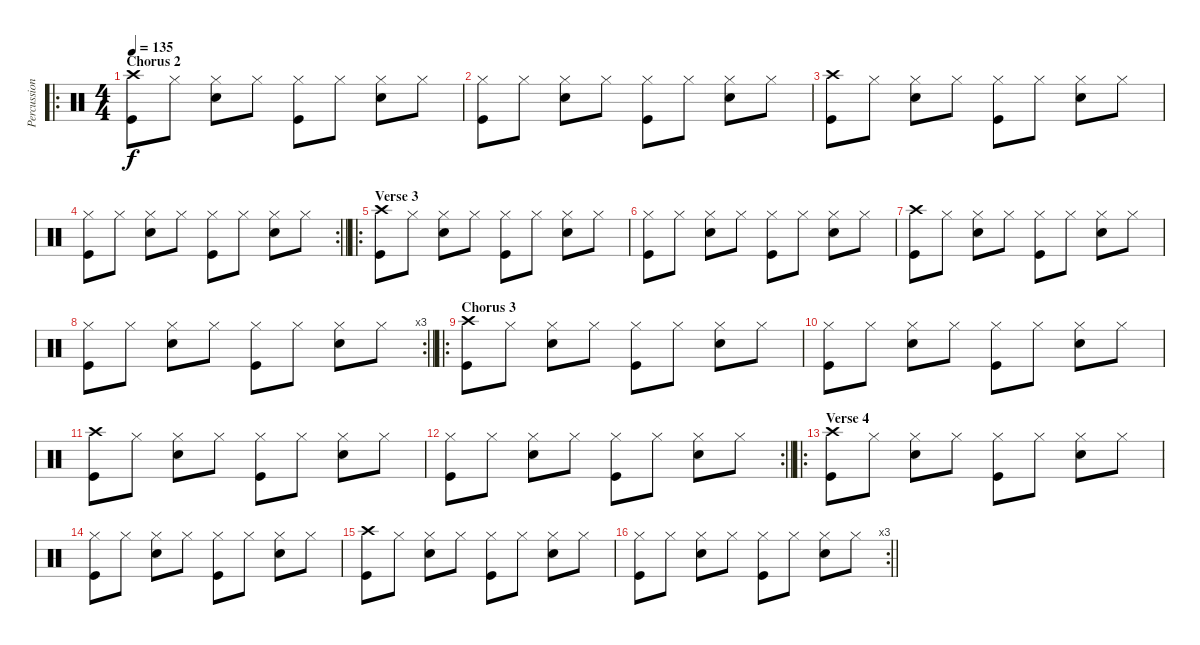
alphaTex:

\track ("Percussion" "Percussion") {instrument percussion}
\staff {score}
\articulation defaults
\ro
\ts (4 4)
\section ("" "Chorus 2")
\tempo 135
\clef neutral
\ks c
("Crash high (hit)" "Kick (hit)").8{dy f} "Hi-Hat (closed)".8 ("Hi-Hat (closed)" "Electric Snare (hit)").8 "Hi-Hat (closed)".8 ("Hi-Hat (closed)" "Kick (hit)").8 "Hi-Hat (closed)".8 ("Hi-Hat (closed)" "Electric Snare (hit)").8 "Hi-Hat (closed)".8 |
("Hi-Hat (closed)" "Kick (hit)").8 "Hi-Hat (closed)".8 ("Hi-Hat (closed)" "Electric Snare (hit)").8 "Hi-Hat (closed)".8 ("Hi-Hat (closed)" "Kick (hit)").8 "Hi-Hat (closed)".8 ("Hi-Hat (closed)" "Electric Snare (hit)").8 "Hi-Hat (closed)".8 |
("Crash high (hit)" "Kick (hit)").8 "Hi-Hat (closed)".8 ("Hi-Hat (closed)" "Electric Snare (hit)").8 "Hi-Hat (closed)".8 ("Hi-Hat (closed)" "Kick (hit)").8 "Hi-Hat (closed)".8 ("Hi-Hat (closed)" "Electric Snare (hit)").8 "Hi-Hat (closed)".8 |
\rc 2
\barLineRight lightlight
("Hi-Hat (closed)" "Kick (hit)").8 "Hi-Hat (closed)".8 ("Hi-Hat (closed)" "Electric Snare (hit)").8 "Hi-Hat (closed)".8 ("Hi-Hat (closed)" "Kick (hit)").8 "Hi-Hat (closed)".8 ("Hi-Hat (closed)" "Electric Snare (hit)").8 "Hi-Hat (closed)".8 |
\ro
\section ("" "Verse 3")
("Crash high (hit)" "Kick (hit)").8 "Hi-Hat (closed)".8 ("Hi-Hat (closed)" "Electric Snare (hit)").8 "Hi-Hat (closed)".8 ("Hi-Hat (closed)" "Kick (hit)").8 "Hi-Hat (closed)".8 ("Hi-Hat (closed)" "Electric Snare (hit)").8 "Hi-Hat (closed)".8 |
("Hi-Hat (closed)" "Kick (hit)").8 "Hi-Hat (closed)".8 ("Hi-Hat (closed)" "Electric Snare (hit)").8 "Hi-Hat (closed)".8 ("Hi-Hat (closed)" "Kick (hit)").8 "Hi-Hat (closed)".8 ("Hi-Hat (closed)" "Electric Snare (hit)").8 "Hi-Hat (closed)".8 |
("Crash high (hit)" "Kick (hit)").8 "Hi-Hat (closed)".8 ("Hi-Hat (closed)" "Electric Snare (hit)").8 "Hi-Hat (closed)".8 ("Hi-Hat (closed)" "Kick (hit)").8 "Hi-Hat (closed)".8 ("Hi-Hat (closed)" "Electric Snare (hit)").8 "Hi-Hat (closed)".8 |
\rc 3
\barLineRight lightlight
("Hi-Hat (closed)" "Kick (hit)").8 "Hi-Hat (closed)".8 ("Hi-Hat (closed)" "Electric Snare (hit)").8 "Hi-Hat (closed)".8 ("Hi-Hat (closed)" "Kick (hit)").8 "Hi-Hat (closed)".8 ("Hi-Hat (closed)" "Electric Snare (hit)").8 "Hi-Hat (closed)".8 |
\ro
\section ("" "Chorus 3")
("Crash high (hit)" "Kick (hit)").8 "Hi-Hat (closed)".8 ("Hi-Hat (closed)" "Electric Snare (hit)").8 "Hi-Hat (closed)".8 ("Hi-Hat (closed)" "Kick (hit)").8 "Hi-Hat (closed)".8 ("Hi-Hat (closed)" "Electric Snare (hit)").8 "Hi-Hat (closed)".8 |
("Hi-Hat (closed)" "Kick (hit)").8 "Hi-Hat (closed)".8 ("Hi-Hat (closed)" "Electric Snare (hit)").8 "Hi-Hat (closed)".8 ("Hi-Hat (closed)" "Kick (hit)").8 "Hi-Hat (closed)".8 ("Hi-Hat (closed)" "Electric Snare (hit)").8 "Hi-Hat (closed)".8 |
("Crash high (hit)" "Kick (hit)").8 "Hi-Hat (closed)".8 ("Hi-Hat (closed)" "Electric Snare (hit)").8 "Hi-Hat (closed)".8 ("Hi-Hat (closed)" "Kick (hit)").8 "Hi-Hat (closed)".8 ("Hi-Hat (closed)" "Electric Snare (hit)").8 "Hi-Hat (closed)".8 |
\rc 2
\barLineRight lightlight
("Hi-Hat (closed)" "Kick (hit)").8 "Hi-Hat (closed)".8 ("Hi-Hat (closed)" "Electric Snare (hit)").8 "Hi-Hat (closed)".8 ("Hi-Hat (closed)" "Kick (hit)").8 "Hi-Hat (closed)".8 ("Hi-Hat (closed)" "Electric Snare (hit)").8 "Hi-Hat (closed)".8 |
\ro
\section ("" "Verse 4")
("Crash high (hit)" "Kick (hit)").8 "Hi-Hat (closed)".8 ("Hi-Hat (closed)" "Electric Snare (hit)").8 "Hi-Hat (closed)".8 ("Hi-Hat (closed)" "Kick (hit)").8 "Hi-Hat (closed)".8 ("Hi-Hat (closed)" "Electric Snare (hit)").8 "Hi-Hat (closed)".8 |
("Hi-Hat (closed)" "Kick (hit)").8 "Hi-Hat (closed)".8 ("Hi-Hat (closed)" "Electric Snare (hit)").8 "Hi-Hat (closed)".8 ("Hi-Hat (closed)" "Kick (hit)").8 "Hi-Hat (closed)".8 ("Hi-Hat (closed)" "Electric Snare (hit)").8 "Hi-Hat (closed)".8 |
("Crash high (hit)" "Kick (hit)").8 "Hi-Hat (closed)".8 ("Hi-Hat (closed)" "Electric Snare (hit)").8 "Hi-Hat (closed)".8 ("Hi-Hat (closed)" "Kick (hit)").8 "Hi-Hat (closed)".8 ("Hi-Hat (closed)" "Electric Snare (hit)").8 "Hi-Hat (closed)".8 |
\rc 3
\barLineRight lightlight
("Hi-Hat (closed)" "Kick (hit)").8 "Hi-Hat (closed)".8 ("Hi-Hat (closed)" "Electric Snare (hit)").8 "Hi-Hat (closed)".8 ("Hi-Hat (closed)" "Kick (hit)").8 "Hi-Hat (closed)".8 ("Hi-Hat (closed)" "Electric Snare (hit)").8 "Hi-Hat (closed)".8
